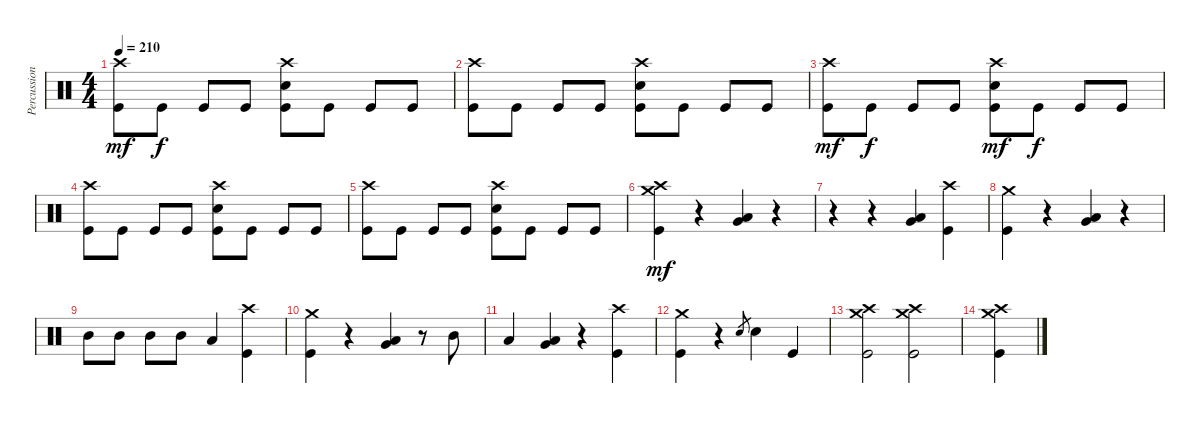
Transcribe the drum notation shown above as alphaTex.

\track ("Percussion" "Percussion") {instrument percussion}
\staff {score}
\articulation defaults
\ts (4 4)
\tempo 210
\clef neutral
\ks c
("Crash high (hit)" "Kick (hit)").8{dy mf} "Kick (hit)".8{dy f} "Kick (hit)".8 "Kick (hit)".8 ("Crash high (hit)" "Snare (hit) 2" "Kick (hit)").8 "Kick (hit)".8 "Kick (hit)".8 "Kick (hit)".8 |
("Crash high (hit)" "Kick (hit)").8 "Kick (hit)".8 "Kick (hit)".8 "Kick (hit)".8 ("Crash high (hit)" "Snare (hit) 2" "Kick (hit)").8 "Kick (hit)".8 "Kick (hit)".8 "Kick (hit)".8 |
("Crash high (hit)" "Kick (hit)").8{dy mf} "Kick (hit)".8{dy f} "Kick (hit)".8 "Kick (hit)".8 ("Crash high (hit)" "Snare (hit) 2" "Kick (hit)").8{dy mf} "Kick (hit)".8{dy f} "Kick (hit)".8 "Kick (hit)".8 |
("Crash high (hit)" "Kick (hit)").8 "Kick (hit)".8 "Kick (hit)".8 "Kick (hit)".8 ("Crash high (hit)" "Snare (hit) 2" "Kick (hit)").8 "Kick (hit)".8 "Kick (hit)".8 "Kick (hit)".8 |
("Crash high (hit)" "Kick (hit)").8 "Kick (hit)".8 "Kick (hit)".8 "Kick (hit)".8 ("Crash high (hit)" "Snare (hit) 2" "Kick (hit)").8 "Kick (hit)".8 "Kick (hit)".8 "Kick (hit)".8 |
("Crash high (hit)" "Crash medium (hit)" "Kick (hit)").4{dy mf} r.4 ("Low Tom (hit)" "Very Low Tom (hit)").4 r.4 |
r.4 r.4 ("Low Tom (hit)" "Very Low Tom (hit)").4 ("Crash high (hit)" "Kick (hit)").4 |
("Crash medium (hit)" "Kick (hit)").4 r.4 ("Low Tom (hit)" "Very Low Tom (hit)").4 r.4 |
"Mid Tom (hit)".8 "Mid Tom (hit)".8 "Mid Tom (hit)".8 "Mid Tom (hit)".8 "Low Tom (hit)".4 ("Crash high (hit)" "Kick (hit)").4 |
("Crash medium (hit)" "Kick (hit)").4 r.4 ("Low Tom (hit)" "Very Low Tom (hit)").4 r.8 "Mid Tom (hit)".8 |
"Low Tom (hit)".4 ("Low Tom (hit)" "Very Low Tom (hit)").4 r.4 ("Crash high (hit)" "Kick (hit)").4 |
("Crash medium (hit)" "Kick (hit)").4 r.4 "Snare (hit) 2".8{gr} "Snare (hit) 2".4 "Kick (hit)".4 |
("Crash high (hit)" "Crash medium (hit)" "Kick (hit)").2 ("Crash high (hit)" "Crash medium (hit)" "Kick (hit)").2 |
("Crash high (hit)" "Crash medium (hit)" "Kick (hit)").4
